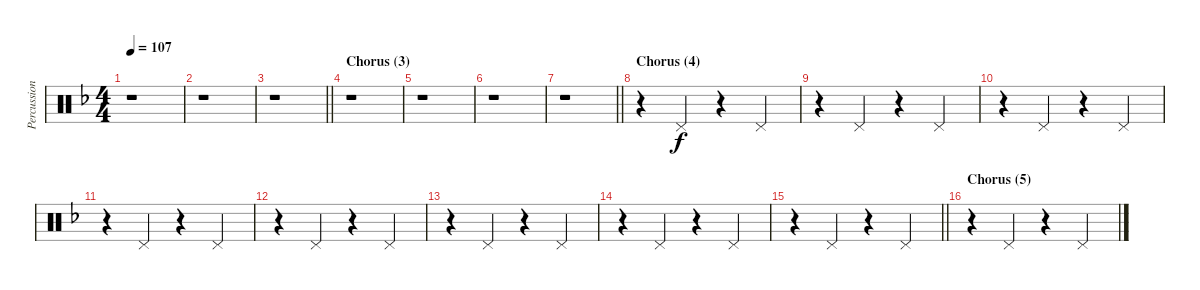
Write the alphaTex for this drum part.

\track ("Percussion" "Percussion") {instrument percussion}
\staff {score}
\articulation defaults
\ts (4 4)
\tempo 107
\clef neutral
\ks dminor
r.1{dy f} |
r.1 |
\barLineRight lightlight
r.1 |
\section ("" "Chorus (3)")
r.1 |
r.1 |
r.1 |
\barLineRight lightlight
r.1 |
\section ("" "Chorus (4)")
r.4 "Pedal Hi-Hat (hit)".4 r.4 "Pedal Hi-Hat (hit)".4 |
r.4 "Pedal Hi-Hat (hit)".4 r.4 "Pedal Hi-Hat (hit)".4 |
r.4 "Pedal Hi-Hat (hit)".4 r.4 "Pedal Hi-Hat (hit)".4 |
r.4 "Pedal Hi-Hat (hit)".4 r.4 "Pedal Hi-Hat (hit)".4 |
r.4 "Pedal Hi-Hat (hit)".4 r.4 "Pedal Hi-Hat (hit)".4 |
r.4 "Pedal Hi-Hat (hit)".4 r.4 "Pedal Hi-Hat (hit)".4 |
r.4 "Pedal Hi-Hat (hit)".4 r.4 "Pedal Hi-Hat (hit)".4 |
\barLineRight lightlight
r.4 "Pedal Hi-Hat (hit)".4 r.4 "Pedal Hi-Hat (hit)".4 |
\section ("" "Chorus (5)")
r.4 "Pedal Hi-Hat (hit)".4 r.4 "Pedal Hi-Hat (hit)".4
